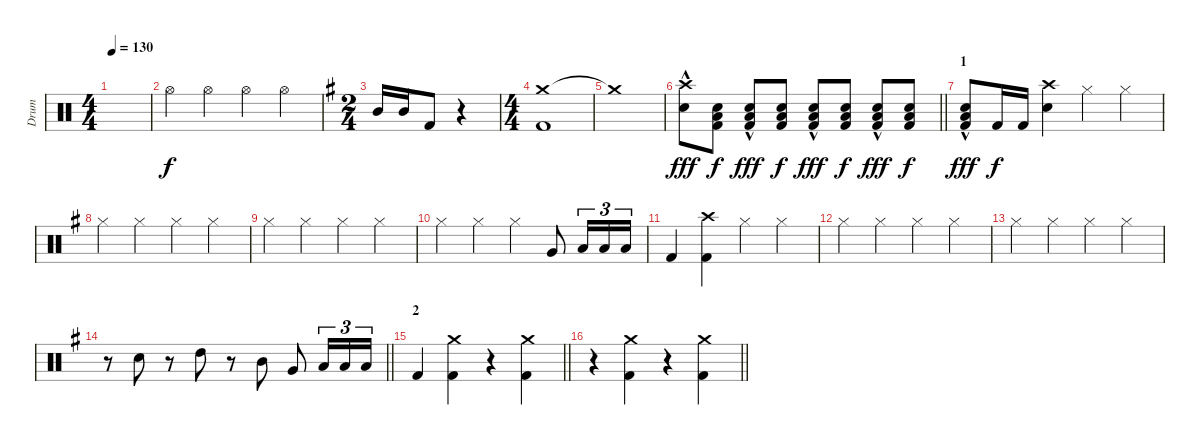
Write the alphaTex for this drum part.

\track ("Drum" "Drum") {instrument percussion}
\staff {score}
\articulation defaults
\ts (4 4)
\tempo 130
\clef neutral
\ks c
|
"Hi-Hat (open)".4 "Hi-Hat (open)".4 "Hi-Hat (open)".4 "Hi-Hat (open)".4 |
\ts (2 4)
\ks eminor "Mid Tom (hit)".16 "Mid Tom (hit)".16 "Kick (hit) 2".8
r.4 |
\ts (4 4)
("Crash medium (hit)" "Kick (hit) 2").1 |
"Crash medium (hit)"{t}.1 |
\barLineRight lightlight
("Crash high (hit)" "Snare (hit) 2"{hac}).8{dy fff} ("Snare (hit) 2" "Low Floor Tom (hit)" "Kick (hit) 2").8{dy f} ("Snare (hit) 2"{hac} "Low Floor Tom (hit)" "Kick (hit) 2").8{dy fff} ("Snare (hit) 2" "Low Floor Tom (hit)" "Kick (hit) 2").8{dy f} ("Snare (hit) 2"{hac} "Low Floor Tom (hit)" "Kick (hit) 2").8{dy fff} ("Snare (hit) 2" "Low Floor Tom (hit)" "Kick (hit) 2").8{dy f} ("Snare (hit) 2"{hac} "Low Floor Tom (hit)" "Kick (hit) 2").8{dy fff} ("Snare (hit) 2" "Low Floor Tom (hit)" "Kick (hit) 2").8{dy f} |
\section ("" "1")
("Snare (hit) 2"{hac} "Low Floor Tom (hit)" "Kick (hit) 2").8{dy fff} "Kick (hit) 2".16{dy f} "Kick (hit) 2".16 ("Crash high (hit)" "Snare (hit) 2").4 "Hi-Hat (closed)".4 "Hi-Hat (closed)".4 |
"Hi-Hat (closed)".4 "Hi-Hat (closed)".4 "Hi-Hat (closed)".4 "Hi-Hat (closed)".4 |
"Hi-Hat (closed)".4 "Hi-Hat (closed)".4 "Hi-Hat (closed)".4 "Hi-Hat (closed)".4 |
"Hi-Hat (closed)".4 "Hi-Hat (closed)".4 "Hi-Hat (closed)".4 "Very Low Tom (hit)".8 "Low Floor Tom (hit)".16{tu (3 2)} "Low Floor Tom (hit)".16{tu (3 2)} "Low Floor Tom (hit)".16{tu (3 2)} |
"Kick (hit) 2".4 ("Crash high (hit)" "Kick (hit) 2").4 "Hi-Hat (closed)".4 "Hi-Hat (closed)".4 |
"Hi-Hat (closed)".4 "Hi-Hat (closed)".4 "Hi-Hat (closed)".4 "Hi-Hat (closed)".4 |
"Hi-Hat (closed)".4 "Hi-Hat (closed)".4 "Hi-Hat (closed)".4 "Hi-Hat (closed)".4 |
\barLineRight lightlight
r.8 "Snare (hit) 2".8 r.8 "High Tom (hit)".8 r.8 "Mid Tom (hit)".8 "Very Low Tom (hit)".8 "Low Floor Tom (hit)".16{tu (3 2)} "Low Floor Tom (hit)".16{tu (3 2)} "Low Floor Tom (hit)".16{tu (3 2)} |
\section ("" "2")
\barLineRight lightlight "Kick (hit) 2".4
("Crash medium (hit)" "Kick (hit) 2").4 r.4 ("Crash medium (hit)" "Kick (hit) 2").4 |
\section ("" "")
\barLineRight lightlight
r.4 ("Crash medium (hit)" "Kick (hit) 2").4 r.4 ("Crash medium (hit)" "Kick (hit) 2").4
